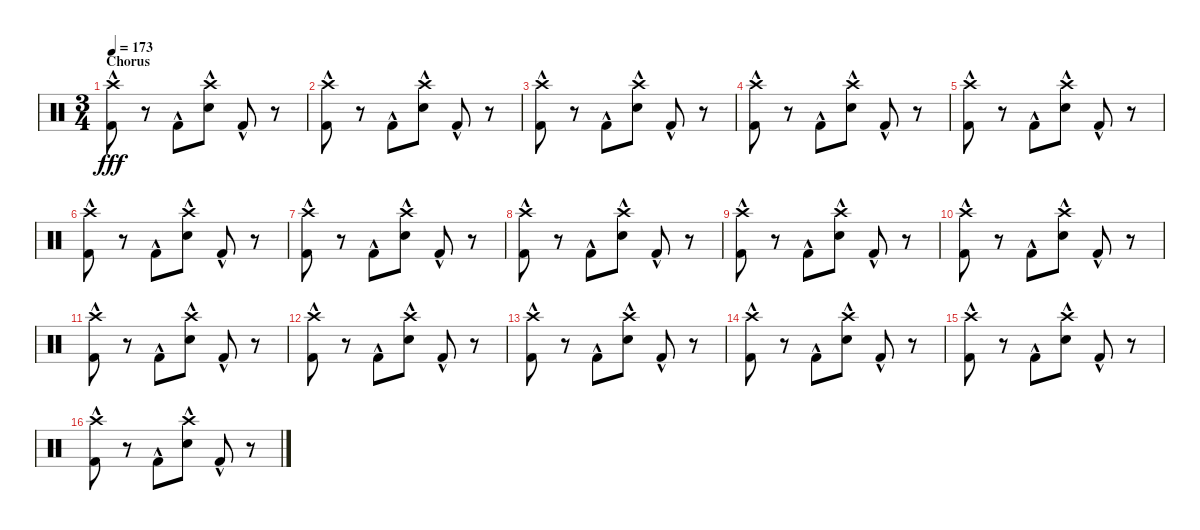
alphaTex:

\track (" " " ") {instrument percussion}
\staff {score}
\articulation defaults
\ts (3 4)
\section ("" "Chorus")
\tempo 173
\clef neutral
\ks c
("Crash high (hit)"{hac} "Kick (hit) 2"{hac}).8{dy fff} r.8 "Kick (hit) 2"{hac}.8 ("Crash high (hit)"{hac} "Electric Snare (hit)"{hac}).8 "Kick (hit) 2"{hac}.8 r.8 |
("Crash high (hit)"{hac} "Kick (hit) 2"{hac}).8 r.8 "Kick (hit) 2"{hac}.8 ("Crash high (hit)"{hac} "Electric Snare (hit)"{hac}).8 "Kick (hit) 2"{hac}.8 r.8 |
("Crash high (hit)"{hac} "Kick (hit) 2"{hac}).8 r.8 "Kick (hit) 2"{hac}.8 ("Crash high (hit)"{hac} "Electric Snare (hit)"{hac}).8 "Kick (hit) 2"{hac}.8 r.8 |
("Crash high (hit)"{hac} "Kick (hit) 2"{hac}).8 r.8 "Kick (hit) 2"{hac}.8 ("Crash high (hit)"{hac} "Electric Snare (hit)"{hac}).8 "Kick (hit) 2"{hac}.8 r.8 |
("Crash high (hit)"{hac} "Kick (hit) 2"{hac}).8 r.8 "Kick (hit) 2"{hac}.8 ("Crash high (hit)"{hac} "Electric Snare (hit)"{hac}).8 "Kick (hit) 2"{hac}.8 r.8 |
("Crash high (hit)"{hac} "Kick (hit) 2"{hac}).8 r.8 "Kick (hit) 2"{hac}.8 ("Crash high (hit)"{hac} "Electric Snare (hit)"{hac}).8 "Kick (hit) 2"{hac}.8 r.8 |
("Crash high (hit)"{hac} "Kick (hit) 2"{hac}).8 r.8 "Kick (hit) 2"{hac}.8 ("Crash high (hit)"{hac} "Electric Snare (hit)"{hac}).8 "Kick (hit) 2"{hac}.8 r.8 |
("Crash high (hit)"{hac} "Kick (hit) 2"{hac}).8 r.8 "Kick (hit) 2"{hac}.8 ("Crash high (hit)"{hac} "Electric Snare (hit)"{hac}).8 "Kick (hit) 2"{hac}.8 r.8 |
("Crash high (hit)"{hac} "Kick (hit) 2"{hac}).8 r.8 "Kick (hit) 2"{hac}.8 ("Crash high (hit)"{hac} "Electric Snare (hit)"{hac}).8 "Kick (hit) 2"{hac}.8 r.8 |
("Crash high (hit)"{hac} "Kick (hit) 2"{hac}).8 r.8 "Kick (hit) 2"{hac}.8 ("Crash high (hit)"{hac} "Electric Snare (hit)"{hac}).8 "Kick (hit) 2"{hac}.8 r.8 |
("Crash high (hit)"{hac} "Kick (hit) 2"{hac}).8 r.8 "Kick (hit) 2"{hac}.8 ("Crash high (hit)"{hac} "Electric Snare (hit)"{hac}).8 "Kick (hit) 2"{hac}.8 r.8 |
("Crash high (hit)"{hac} "Kick (hit) 2"{hac}).8 r.8 "Kick (hit) 2"{hac}.8 ("Crash high (hit)"{hac} "Electric Snare (hit)"{hac}).8 "Kick (hit) 2"{hac}.8 r.8 |
("Crash high (hit)"{hac} "Kick (hit) 2"{hac}).8 r.8 "Kick (hit) 2"{hac}.8 ("Crash high (hit)"{hac} "Electric Snare (hit)"{hac}).8 "Kick (hit) 2"{hac}.8 r.8 |
("Crash high (hit)"{hac} "Kick (hit) 2"{hac}).8 r.8 "Kick (hit) 2"{hac}.8 ("Crash high (hit)"{hac} "Electric Snare (hit)"{hac}).8 "Kick (hit) 2"{hac}.8 r.8 |
("Crash high (hit)"{hac} "Kick (hit) 2"{hac}).8 r.8 "Kick (hit) 2"{hac}.8 ("Crash high (hit)"{hac} "Electric Snare (hit)"{hac}).8 "Kick (hit) 2"{hac}.8 r.8 |
("Crash high (hit)"{hac} "Kick (hit) 2"{hac}).8 r.8 "Kick (hit) 2"{hac}.8 ("Crash high (hit)"{hac} "Electric Snare (hit)"{hac}).8 "Kick (hit) 2"{hac}.8 r.8
